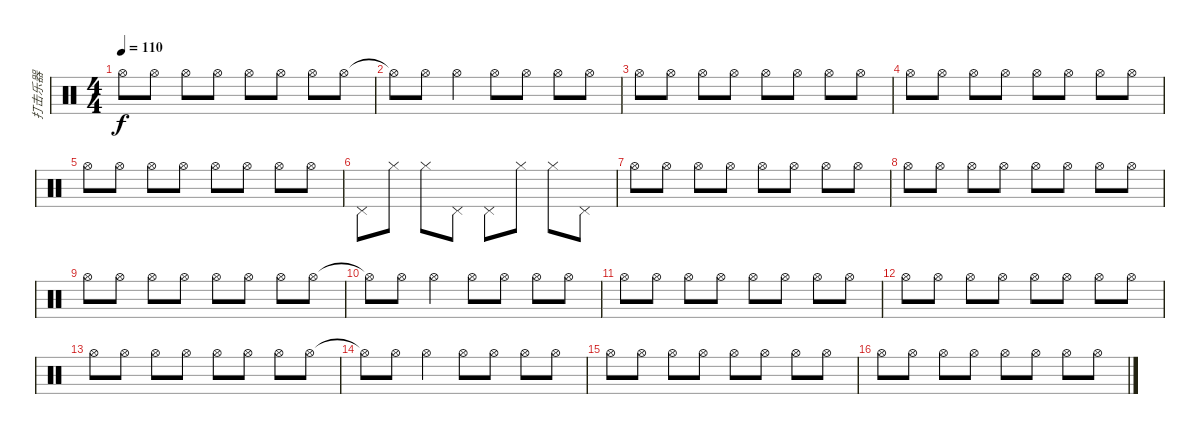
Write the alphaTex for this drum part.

\track ("打击乐器" "打击乐器") {instrument percussion}
\staff {score}
\articulation defaults
\ts (4 4)
\tempo 110
\clef neutral
\ks c "Hi-Hat (open)".8{dy f} "Hi-Hat (open)".8 "Hi-Hat (open)".8 "Hi-Hat (open)".8 "Hi-Hat (open)".8 "Hi-Hat (open)".8 "Hi-Hat (open)".8 "Hi-Hat (open)".8
|
"Hi-Hat (open)"{t}.8 "Hi-Hat (open)".8 "Hi-Hat (open)".4 "Hi-Hat (open)".8 "Hi-Hat (open)".8 "Hi-Hat (open)".8 "Hi-Hat (open)".8 |
"Hi-Hat (open)".8 "Hi-Hat (open)".8 "Hi-Hat (open)".8 "Hi-Hat (open)".8 "Hi-Hat (open)".8 "Hi-Hat (open)".8 "Hi-Hat (open)".8 "Hi-Hat (open)".8 |
"Hi-Hat (open)".8 "Hi-Hat (open)".8 "Hi-Hat (open)".8 "Hi-Hat (open)".8 "Hi-Hat (open)".8 "Hi-Hat (open)".8 "Hi-Hat (open)".8 "Hi-Hat (open)".8 |
"Hi-Hat (open)".8 "Hi-Hat (open)".8 "Hi-Hat (open)".8 "Hi-Hat (open)".8 "Hi-Hat (open)".8 "Hi-Hat (open)".8 "Hi-Hat (open)".8 "Hi-Hat (open)".8 |
"Pedal Hi-Hat (hit)".8 "Hi-Hat (closed)".8 "Hi-Hat (closed)".8 "Pedal Hi-Hat (hit)".8 "Pedal Hi-Hat (hit)".8 "Hi-Hat (closed)".8 "Hi-Hat (closed)".8 "Pedal Hi-Hat (hit)".8 |
"Hi-Hat (open)".8 "Hi-Hat (open)".8 "Hi-Hat (open)".8 "Hi-Hat (open)".8 "Hi-Hat (open)".8 "Hi-Hat (open)".8 "Hi-Hat (open)".8 "Hi-Hat (open)".8 |
"Hi-Hat (open)".8 "Hi-Hat (open)".8 "Hi-Hat (open)".8 "Hi-Hat (open)".8 "Hi-Hat (open)".8 "Hi-Hat (open)".8 "Hi-Hat (open)".8 "Hi-Hat (open)".8 |
"Hi-Hat (open)".8 "Hi-Hat (open)".8 "Hi-Hat (open)".8 "Hi-Hat (open)".8 "Hi-Hat (open)".8 "Hi-Hat (open)".8 "Hi-Hat (open)".8 "Hi-Hat (open)".8 |
"Hi-Hat (open)"{t}.8 "Hi-Hat (open)".8 "Hi-Hat (open)".4 "Hi-Hat (open)".8 "Hi-Hat (open)".8 "Hi-Hat (open)".8 "Hi-Hat (open)".8 |
"Hi-Hat (open)".8 "Hi-Hat (open)".8 "Hi-Hat (open)".8 "Hi-Hat (open)".8 "Hi-Hat (open)".8 "Hi-Hat (open)".8 "Hi-Hat (open)".8 "Hi-Hat (open)".8 |
"Hi-Hat (open)".8 "Hi-Hat (open)".8 "Hi-Hat (open)".8 "Hi-Hat (open)".8 "Hi-Hat (open)".8 "Hi-Hat (open)".8 "Hi-Hat (open)".8 "Hi-Hat (open)".8 |
"Hi-Hat (open)".8 "Hi-Hat (open)".8 "Hi-Hat (open)".8 "Hi-Hat (open)".8 "Hi-Hat (open)".8 "Hi-Hat (open)".8 "Hi-Hat (open)".8 "Hi-Hat (open)".8 |
"Hi-Hat (open)"{t}.8 "Hi-Hat (open)".8 "Hi-Hat (open)".4 "Hi-Hat (open)".8 "Hi-Hat (open)".8 "Hi-Hat (open)".8 "Hi-Hat (open)".8 |
"Hi-Hat (open)".8 "Hi-Hat (open)".8 "Hi-Hat (open)".8 "Hi-Hat (open)".8 "Hi-Hat (open)".8 "Hi-Hat (open)".8 "Hi-Hat (open)".8 "Hi-Hat (open)".8 |
"Hi-Hat (open)".8 "Hi-Hat (open)".8 "Hi-Hat (open)".8 "Hi-Hat (open)".8 "Hi-Hat (open)".8 "Hi-Hat (open)".8 "Hi-Hat (open)".8 "Hi-Hat (open)".8
